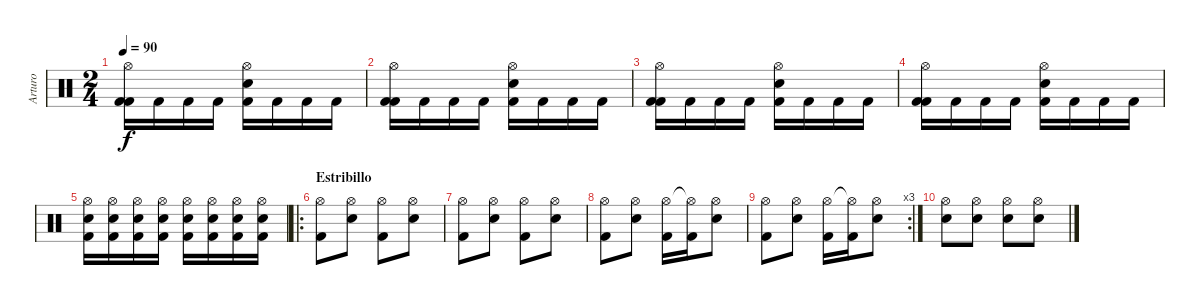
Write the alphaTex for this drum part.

\track ("Arturo" "Arturo") {instrument percussion}
\staff {score}
\articulation defaults
\ts (2 4)
\tempo 90
\clef neutral
\ks c
("Hi-Hat (open)" "Kick (hit) 2" "Kick (hit) 2").16{dy f} "Kick (hit) 2".16 "Kick (hit) 2".16 "Kick (hit) 2".16 ("Hi-Hat (open)" "Electric Snare (hit)" "Kick (hit) 2").16 "Kick (hit) 2".16 "Kick (hit) 2".16 "Kick (hit) 2".16 |
("Hi-Hat (open)" "Kick (hit) 2" "Kick (hit) 2").16 "Kick (hit) 2".16 "Kick (hit) 2".16 "Kick (hit) 2".16 ("Hi-Hat (open)" "Electric Snare (hit)" "Kick (hit) 2").16 "Kick (hit) 2".16 "Kick (hit) 2".16 "Kick (hit) 2".16 |
("Hi-Hat (open)" "Kick (hit) 2" "Kick (hit) 2").16 "Kick (hit) 2".16 "Kick (hit) 2".16 "Kick (hit) 2".16 ("Hi-Hat (open)" "Electric Snare (hit)" "Kick (hit) 2").16 "Kick (hit) 2".16 "Kick (hit) 2".16 "Kick (hit) 2".16 |
("Hi-Hat (open)" "Kick (hit) 2" "Kick (hit) 2").16 "Kick (hit) 2".16 "Kick (hit) 2".16 "Kick (hit) 2".16 ("Hi-Hat (open)" "Electric Snare (hit)" "Kick (hit) 2").16 "Kick (hit) 2".16 "Kick (hit) 2".16 "Kick (hit) 2".16 |
("Hi-Hat (open)" "Electric Snare (hit)" "Kick (hit) 2").16 ("Hi-Hat (open)" "Electric Snare (hit)" "Kick (hit) 2").16 ("Hi-Hat (open)" "Electric Snare (hit)" "Kick (hit) 2").16 ("Hi-Hat (open)" "Electric Snare (hit)" "Kick (hit) 2").16 ("Hi-Hat (open)" "Electric Snare (hit)" "Kick (hit) 2").16 ("Hi-Hat (open)" "Electric Snare (hit)" "Kick (hit) 2").16 ("Hi-Hat (open)" "Electric Snare (hit)" "Kick (hit) 2").16 ("Hi-Hat (open)" "Electric Snare (hit)" "Kick (hit) 2").16 |
\ro
\section ("" "Estribillo")
("Hi-Hat (open)" "Kick (hit) 2").8 ("Hi-Hat (open)" "Electric Snare (hit)").8 ("Hi-Hat (open)" "Kick (hit) 2").8 ("Hi-Hat (open)" "Electric Snare (hit)").8 |
("Hi-Hat (open)" "Kick (hit) 2").8 ("Hi-Hat (open)" "Electric Snare (hit)").8 ("Hi-Hat (open)" "Kick (hit) 2").8 ("Hi-Hat (open)" "Electric Snare (hit)").8 |
("Hi-Hat (open)" "Kick (hit) 2").8 ("Hi-Hat (open)" "Electric Snare (hit)").8 ("Hi-Hat (open)" "Kick (hit) 2").16 ("Hi-Hat (open)"{t} "Kick (hit) 2").16 ("Hi-Hat (open)" "Electric Snare (hit)").8 |
\rc 3
("Hi-Hat (open)" "Kick (hit) 2").8 ("Hi-Hat (open)" "Electric Snare (hit)").8 ("Hi-Hat (open)" "Kick (hit) 2").16 ("Hi-Hat (open)"{t} "Kick (hit) 2").16 ("Hi-Hat (open)" "Electric Snare (hit)").8 |
("Hi-Hat (open)" "Electric Snare (hit)").8 ("Hi-Hat (open)" "Electric Snare (hit)").8 ("Hi-Hat (open)" "Electric Snare (hit)").8 ("Hi-Hat (open)" "Electric Snare (hit)").8
